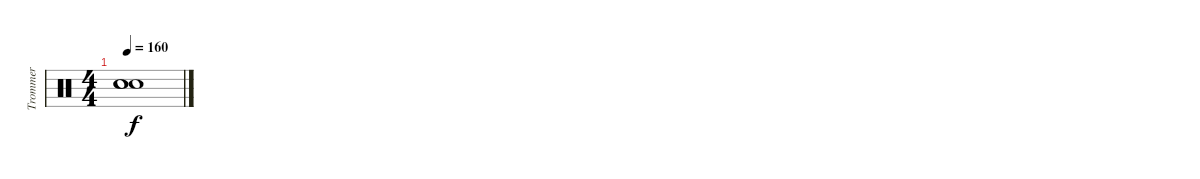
\track ("Trommer" "Trommer") {instrument percussion}
\staff {score}
\articulation defaults
\ts (4 4)
\tempo 160
\clef neutral
\ks c
("Snare (hit)"{t} "Snare (hit)"{t} "Snare (hit)"{t}).1{dy f}
